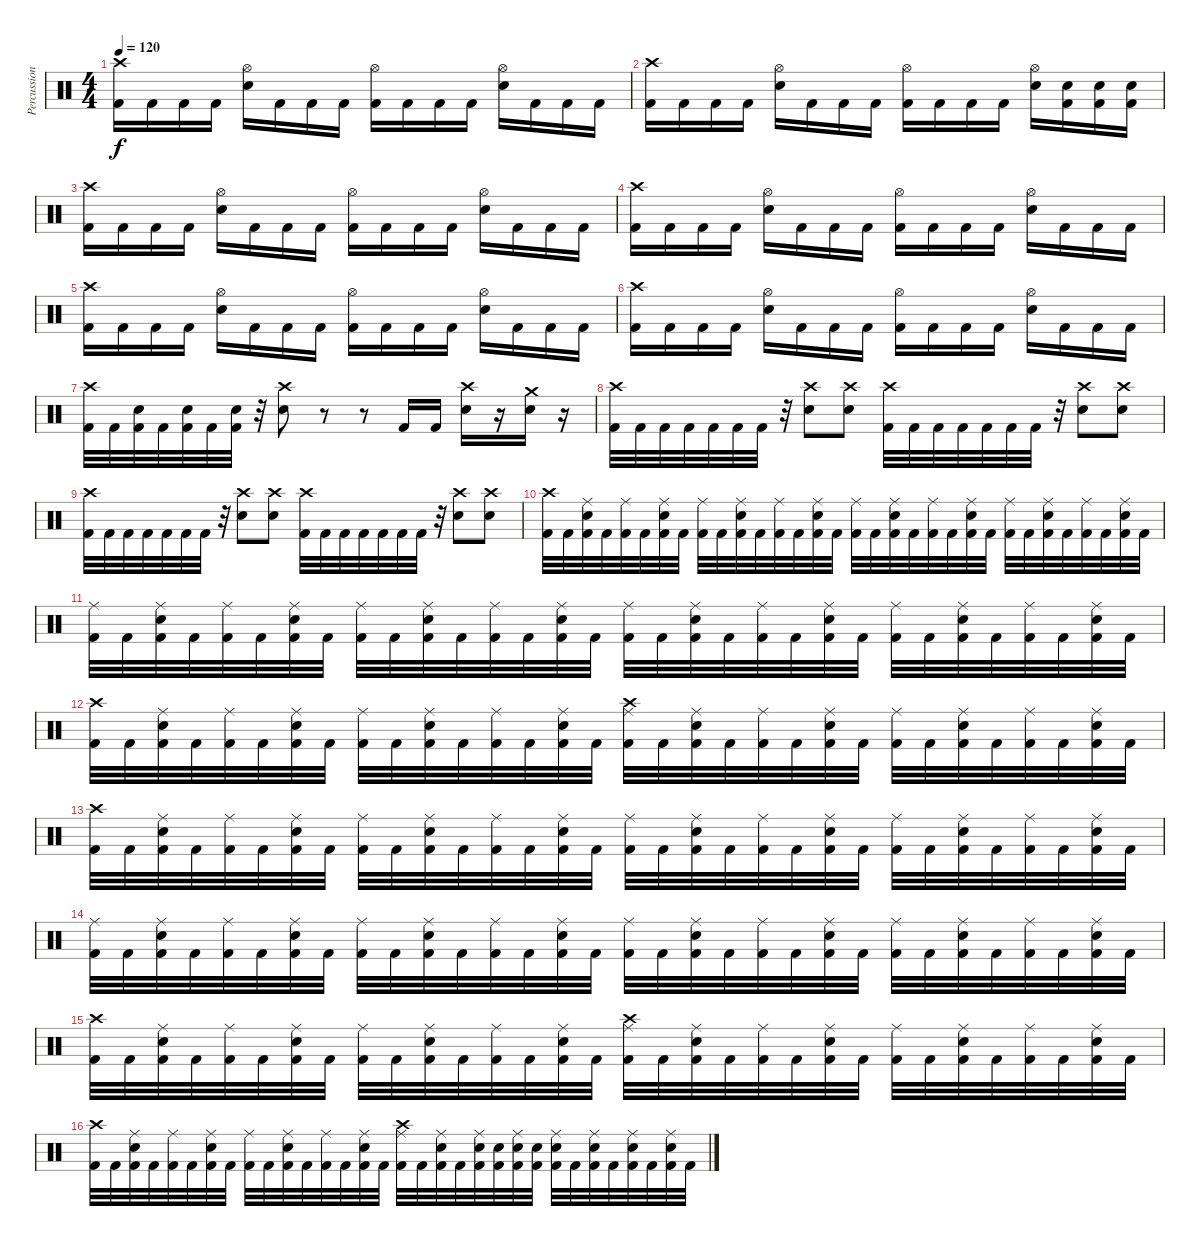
\track ("Percussion" "Percussion") {instrument percussion}
\staff {score}
\articulation defaults
\ts (4 4)
\tempo 120
\clef neutral
\ks c
("Crash high (hit)" "Kick (hit) 2").16{dy f} "Kick (hit) 2".16 "Kick (hit) 2".16 "Kick (hit) 2".16 ("Hi-Hat (open)" "Electric Snare (hit)").16 "Kick (hit) 2".16 "Kick (hit) 2".16 "Kick (hit) 2".16 ("Hi-Hat (open)" "Kick (hit) 2").16 "Kick (hit) 2".16 "Kick (hit) 2".16 "Kick (hit) 2".16 ("Hi-Hat (open)" "Electric Snare (hit)").16 "Kick (hit) 2".16 "Kick (hit) 2".16 "Kick (hit) 2".16 |
("Crash high (hit)" "Kick (hit) 2").16 "Kick (hit) 2".16 "Kick (hit) 2".16 "Kick (hit) 2".16 ("Hi-Hat (open)" "Electric Snare (hit)").16 "Kick (hit) 2".16 "Kick (hit) 2".16 "Kick (hit) 2".16 ("Hi-Hat (open)" "Kick (hit) 2").16 "Kick (hit) 2".16 "Kick (hit) 2".16 "Kick (hit) 2".16 ("Hi-Hat (open)" "Electric Snare (hit)").16 ("Electric Snare (hit)" "Kick (hit) 2").16 ("Electric Snare (hit)" "Kick (hit) 2").16 ("Electric Snare (hit)" "Kick (hit) 2").16 |
("Crash high (hit)" "Kick (hit) 2").16 "Kick (hit) 2".16 "Kick (hit) 2".16 "Kick (hit) 2".16 ("Hi-Hat (open)" "Electric Snare (hit)").16 "Kick (hit) 2".16 "Kick (hit) 2".16 "Kick (hit) 2".16 ("Hi-Hat (open)" "Kick (hit) 2").16 "Kick (hit) 2".16 "Kick (hit) 2".16 "Kick (hit) 2".16 ("Hi-Hat (open)" "Electric Snare (hit)").16 "Kick (hit) 2".16 "Kick (hit) 2".16 "Kick (hit) 2".16 |
("Crash high (hit)" "Kick (hit) 2").16 "Kick (hit) 2".16 "Kick (hit) 2".16 "Kick (hit) 2".16 ("Hi-Hat (open)" "Electric Snare (hit)").16 "Kick (hit) 2".16 "Kick (hit) 2".16 "Kick (hit) 2".16 ("Hi-Hat (open)" "Kick (hit) 2").16 "Kick (hit) 2".16 "Kick (hit) 2".16 "Kick (hit) 2".16 ("Hi-Hat (open)" "Electric Snare (hit)").16 "Kick (hit) 2".16 "Kick (hit) 2".16 "Kick (hit) 2".16 |
("Crash high (hit)" "Kick (hit) 2").16 "Kick (hit) 2".16 "Kick (hit) 2".16 "Kick (hit) 2".16 ("Hi-Hat (open)" "Electric Snare (hit)").16 "Kick (hit) 2".16 "Kick (hit) 2".16 "Kick (hit) 2".16 ("Hi-Hat (open)" "Kick (hit) 2").16 "Kick (hit) 2".16 "Kick (hit) 2".16 "Kick (hit) 2".16 ("Hi-Hat (open)" "Electric Snare (hit)").16 "Kick (hit) 2".16 "Kick (hit) 2".16 "Kick (hit) 2".16 |
("Crash high (hit)" "Kick (hit) 2").16 "Kick (hit) 2".16 "Kick (hit) 2".16 "Kick (hit) 2".16 ("Hi-Hat (open)" "Electric Snare (hit)").16 "Kick (hit) 2".16 "Kick (hit) 2".16 "Kick (hit) 2".16 ("Hi-Hat (open)" "Kick (hit) 2").16 "Kick (hit) 2".16 "Kick (hit) 2".16 "Kick (hit) 2".16 ("Hi-Hat (open)" "Electric Snare (hit)").16 "Kick (hit) 2".16 "Kick (hit) 2".16 "Kick (hit) 2".16 |
("Crash high (hit)" "Kick (hit) 2").32 "Kick (hit) 2".32 ("Snare (hit) 2" "Kick (hit) 2").32 "Kick (hit) 2".32 ("Snare (hit) 2" "Kick (hit) 2").32 "Kick (hit) 2".32 ("Snare (hit) 2" "Kick (hit) 2").32 r.32 ("Crash high (hit)" "Snare (hit) 2").8 r.8 r.8 "Kick (hit) 2".16 "Kick (hit) 2".16 ("Crash high (hit)" "Snare (hit) 2").16 r.16 ("Crash medium (hit)" "Snare (hit) 2").16 r.16 |
("Crash high (hit)" "Kick (hit) 2").32 "Kick (hit) 2".32 "Kick (hit) 2".32 "Kick (hit) 2".32 "Kick (hit) 2".32 "Kick (hit) 2".32 "Kick (hit) 2".32 r.32 ("Crash high (hit)" "Snare (hit) 2").8 ("Crash high (hit)" "Snare (hit) 2").8 ("Crash high (hit)" "Kick (hit) 2").32 "Kick (hit) 2".32 "Kick (hit) 2".32 "Kick (hit) 2".32 "Kick (hit) 2".32 "Kick (hit) 2".32 "Kick (hit) 2".32 r.32 ("Crash high (hit)" "Snare (hit) 2").8 ("Crash high (hit)" "Snare (hit) 2").8 |
("Crash high (hit)" "Kick (hit) 2").32 "Kick (hit) 2".32 "Kick (hit) 2".32 "Kick (hit) 2".32 "Kick (hit) 2".32 "Kick (hit) 2".32 "Kick (hit) 2".32 r.32 ("Crash high (hit)" "Snare (hit) 2").8 ("Crash high (hit)" "Snare (hit) 2").8 ("Crash high (hit)" "Kick (hit) 2").32 "Kick (hit) 2".32 "Kick (hit) 2".32 "Kick (hit) 2".32 "Kick (hit) 2".32 "Kick (hit) 2".32 "Kick (hit) 2".32 r.32 ("Crash high (hit)" "Snare (hit) 2").8 ("Crash high (hit)" "Snare (hit) 2").8 |
("Crash high (hit)" "Kick (hit) 2").32 "Kick (hit) 2".32 ("Ride (middle)" "Snare (hit) 2" "Kick (hit) 2").32 "Kick (hit) 2".32 ("Ride (middle)" "Kick (hit) 2").32 "Kick (hit) 2".32 ("Ride (middle)" "Snare (hit) 2" "Kick (hit) 2").32 "Kick (hit) 2".32 ("Ride (middle)" "Kick (hit) 2").32 "Kick (hit) 2".32 ("Ride (middle)" "Snare (hit) 2" "Kick (hit) 2").32 "Kick (hit) 2".32 ("Ride (middle)" "Kick (hit) 2").32 "Kick (hit) 2".32 ("Ride (middle)" "Snare (hit) 2" "Kick (hit) 2").32 "Kick (hit) 2".32 ("Ride (middle)" "Kick (hit) 2").32 "Kick (hit) 2".32 ("Ride (middle)" "Snare (hit) 2" "Kick (hit) 2").32 "Kick (hit) 2".32 ("Ride (middle)" "Kick (hit) 2").32 "Kick (hit) 2".32 ("Ride (middle)" "Snare (hit) 2" "Kick (hit) 2").32 "Kick (hit) 2".32 ("Ride (middle)" "Kick (hit) 2").32 "Kick (hit) 2".32 ("Ride (middle)" "Snare (hit) 2" "Kick (hit) 2").32 "Kick (hit) 2".32 ("Ride (middle)" "Kick (hit) 2").32 "Kick (hit) 2".32 ("Ride (middle)" "Snare (hit) 2" "Kick (hit) 2").32 "Kick (hit) 2".32 |
("Ride (middle)" "Kick (hit) 2").32 "Kick (hit) 2".32 ("Ride (middle)" "Snare (hit) 2" "Kick (hit) 2").32 "Kick (hit) 2".32 ("Ride (middle)" "Kick (hit) 2").32 "Kick (hit) 2".32 ("Ride (middle)" "Snare (hit) 2" "Kick (hit) 2").32 "Kick (hit) 2".32 ("Ride (middle)" "Kick (hit) 2").32 "Kick (hit) 2".32 ("Ride (middle)" "Snare (hit) 2" "Kick (hit) 2").32 "Kick (hit) 2".32 ("Ride (middle)" "Kick (hit) 2").32 "Kick (hit) 2".32 ("Ride (middle)" "Snare (hit) 2" "Kick (hit) 2").32 "Kick (hit) 2".32 ("Ride (middle)" "Kick (hit) 2").32 "Kick (hit) 2".32 ("Ride (middle)" "Snare (hit) 2" "Kick (hit) 2").32 "Kick (hit) 2".32 ("Ride (middle)" "Kick (hit) 2").32 "Kick (hit) 2".32 ("Ride (middle)" "Snare (hit) 2" "Kick (hit) 2").32 "Kick (hit) 2".32 ("Ride (middle)" "Kick (hit) 2").32 "Kick (hit) 2".32 ("Ride (middle)" "Snare (hit) 2" "Kick (hit) 2").32 "Kick (hit) 2".32 ("Ride (middle)" "Kick (hit) 2").32 "Kick (hit) 2".32 ("Ride (middle)" "Snare (hit) 2" "Kick (hit) 2").32 "Kick (hit) 2".32 |
("Crash high (hit)" "Kick (hit) 2").32 "Kick (hit) 2".32 ("Ride (middle)" "Snare (hit) 2" "Kick (hit) 2").32 "Kick (hit) 2".32 ("Ride (middle)" "Kick (hit) 2").32 "Kick (hit) 2".32 ("Ride (middle)" "Snare (hit) 2" "Kick (hit) 2").32 "Kick (hit) 2".32 ("Ride (middle)" "Kick (hit) 2").32 "Kick (hit) 2".32 ("Ride (middle)" "Snare (hit) 2" "Kick (hit) 2").32 "Kick (hit) 2".32 ("Ride (middle)" "Kick (hit) 2").32 "Kick (hit) 2".32 ("Ride (middle)" "Snare (hit) 2" "Kick (hit) 2").32 "Kick (hit) 2".32 ("Crash high (hit)" "Ride (middle)" "Kick (hit) 2").32 "Kick (hit) 2".32 ("Ride (middle)" "Snare (hit) 2" "Kick (hit) 2").32 "Kick (hit) 2".32 ("Ride (middle)" "Kick (hit) 2").32 "Kick (hit) 2".32 ("Ride (middle)" "Snare (hit) 2" "Kick (hit) 2").32 "Kick (hit) 2".32 ("Ride (middle)" "Kick (hit) 2").32 "Kick (hit) 2".32 ("Ride (middle)" "Snare (hit) 2" "Kick (hit) 2").32 "Kick (hit) 2".32 ("Ride (middle)" "Kick (hit) 2").32 "Kick (hit) 2".32 ("Ride (middle)" "Snare (hit) 2" "Kick (hit) 2").32 "Kick (hit) 2".32 |
("Crash high (hit)" "Kick (hit) 2").32 "Kick (hit) 2".32 ("Ride (middle)" "Snare (hit) 2" "Kick (hit) 2").32 "Kick (hit) 2".32 ("Ride (middle)" "Kick (hit) 2").32 "Kick (hit) 2".32 ("Ride (middle)" "Snare (hit) 2" "Kick (hit) 2").32 "Kick (hit) 2".32 ("Ride (middle)" "Kick (hit) 2").32 "Kick (hit) 2".32 ("Ride (middle)" "Snare (hit) 2" "Kick (hit) 2").32 "Kick (hit) 2".32 ("Ride (middle)" "Kick (hit) 2").32 "Kick (hit) 2".32 ("Ride (middle)" "Snare (hit) 2" "Kick (hit) 2").32 "Kick (hit) 2".32 ("Ride (middle)" "Kick (hit) 2").32 "Kick (hit) 2".32 ("Ride (middle)" "Snare (hit) 2" "Kick (hit) 2").32 "Kick (hit) 2".32 ("Ride (middle)" "Kick (hit) 2").32 "Kick (hit) 2".32 ("Ride (middle)" "Snare (hit) 2" "Kick (hit) 2").32 "Kick (hit) 2".32 ("Ride (middle)" "Kick (hit) 2").32 "Kick (hit) 2".32 ("Ride (middle)" "Snare (hit) 2" "Kick (hit) 2").32 "Kick (hit) 2".32 ("Ride (middle)" "Kick (hit) 2").32 "Kick (hit) 2".32 ("Ride (middle)" "Snare (hit) 2" "Kick (hit) 2").32 "Kick (hit) 2".32 |
("Ride (middle)" "Kick (hit) 2").32 "Kick (hit) 2".32 ("Ride (middle)" "Snare (hit) 2" "Kick (hit) 2").32 "Kick (hit) 2".32 ("Ride (middle)" "Kick (hit) 2").32 "Kick (hit) 2".32 ("Ride (middle)" "Snare (hit) 2" "Kick (hit) 2").32 "Kick (hit) 2".32 ("Ride (middle)" "Kick (hit) 2").32 "Kick (hit) 2".32 ("Ride (middle)" "Snare (hit) 2" "Kick (hit) 2").32 "Kick (hit) 2".32 ("Ride (middle)" "Kick (hit) 2").32 "Kick (hit) 2".32 ("Ride (middle)" "Snare (hit) 2" "Kick (hit) 2").32 "Kick (hit) 2".32 ("Ride (middle)" "Kick (hit) 2").32 "Kick (hit) 2".32 ("Ride (middle)" "Snare (hit) 2" "Kick (hit) 2").32 "Kick (hit) 2".32 ("Ride (middle)" "Kick (hit) 2").32 "Kick (hit) 2".32 ("Ride (middle)" "Snare (hit) 2" "Kick (hit) 2").32 "Kick (hit) 2".32 ("Ride (middle)" "Kick (hit) 2").32 "Kick (hit) 2".32 ("Ride (middle)" "Snare (hit) 2" "Kick (hit) 2").32 "Kick (hit) 2".32 ("Ride (middle)" "Kick (hit) 2").32 "Kick (hit) 2".32 ("Ride (middle)" "Snare (hit) 2" "Kick (hit) 2").32 "Kick (hit) 2".32 |
("Crash high (hit)" "Kick (hit) 2").32 "Kick (hit) 2".32 ("Ride (middle)" "Snare (hit) 2" "Kick (hit) 2").32 "Kick (hit) 2".32 ("Ride (middle)" "Kick (hit) 2").32 "Kick (hit) 2".32 ("Ride (middle)" "Snare (hit) 2" "Kick (hit) 2").32 "Kick (hit) 2".32 ("Ride (middle)" "Kick (hit) 2").32 "Kick (hit) 2".32 ("Ride (middle)" "Snare (hit) 2" "Kick (hit) 2").32 "Kick (hit) 2".32 ("Ride (middle)" "Kick (hit) 2").32 "Kick (hit) 2".32 ("Ride (middle)" "Snare (hit) 2" "Kick (hit) 2").32 "Kick (hit) 2".32 ("Crash high (hit)" "Ride (middle)" "Kick (hit) 2").32 "Kick (hit) 2".32 ("Ride (middle)" "Snare (hit) 2" "Kick (hit) 2").32 "Kick (hit) 2".32 ("Ride (middle)" "Kick (hit) 2").32 "Kick (hit) 2".32 ("Ride (middle)" "Snare (hit) 2" "Kick (hit) 2").32 "Kick (hit) 2".32 ("Ride (middle)" "Kick (hit) 2").32 "Kick (hit) 2".32 ("Ride (middle)" "Snare (hit) 2" "Kick (hit) 2").32 "Kick (hit) 2".32 ("Ride (middle)" "Kick (hit) 2").32 "Kick (hit) 2".32 ("Ride (middle)" "Snare (hit) 2" "Kick (hit) 2").32 "Kick (hit) 2".32 |
("Crash high (hit)" "Kick (hit) 2").32 "Kick (hit) 2".32 ("Ride (middle)" "Snare (hit) 2" "Kick (hit) 2").32 "Kick (hit) 2".32 ("Ride (middle)" "Kick (hit) 2").32 "Kick (hit) 2".32 ("Ride (middle)" "Snare (hit) 2" "Kick (hit) 2").32 "Kick (hit) 2".32 ("Ride (middle)" "Kick (hit) 2").32 "Kick (hit) 2".32 ("Ride (middle)" "Snare (hit) 2" "Kick (hit) 2").32 "Kick (hit) 2".32 ("Ride (middle)" "Kick (hit) 2").32 "Kick (hit) 2".32 ("Ride (middle)" "Snare (hit) 2" "Kick (hit) 2").32 "Kick (hit) 2".32 ("Crash high (hit)" "Ride (middle)" "Kick (hit) 2").32 "Kick (hit) 2".32 ("Ride (middle)" "Snare (hit) 2" "Kick (hit) 2").32 "Kick (hit) 2".32 ("Ride (middle)" "Snare (hit) 2" "Kick (hit) 2").32 ("Snare (hit) 2" "Kick (hit) 2").32 ("Ride (middle)" "Snare (hit) 2" "Kick (hit) 2").32 ("Snare (hit) 2" "Kick (hit) 2").32 ("Ride (middle)" "Snare (hit) 2" "Kick (hit) 2").32 "Kick (hit) 2".32 ("Ride (middle)" "Snare (hit) 2" "Kick (hit) 2").32 "Kick (hit) 2".32 ("Ride (middle)" "Snare (hit) 2" "Kick (hit) 2").32 "Kick (hit) 2".32 ("Ride (middle)" "Snare (hit) 2" "Kick (hit) 2").32 "Kick (hit) 2".32
